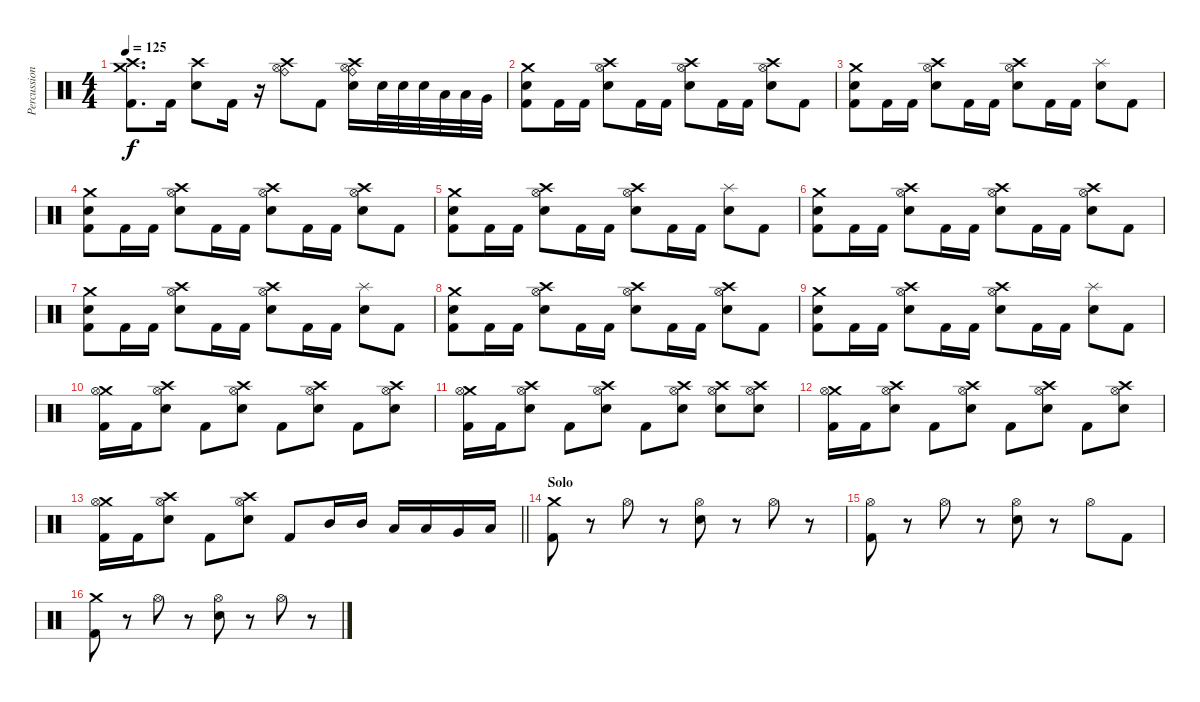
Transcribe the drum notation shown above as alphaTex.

\track ("Percussion" "Percussion") {instrument percussion}
\staff {score}
\articulation defaults
\ts (4 4)
\tempo 125
\clef neutral
\ks c
("Crash medium (hit)" "Crash high (hit)" "Kick (hit) 2").8{d dy f} "Kick (hit) 2".16 ("Crash high (hit)" "Electric Snare (hit)").8 "Kick (hit) 2".16 r.16 ("Ride (bell)" "Crash high (hit)" "Hi-Hat (open)").8 "Kick (hit) 2".8 ("Ride (bell)" "Crash high (hit)" "Hi-Hat (open)" "Electric Snare (hit)").16 "Electric Snare (hit)".32 "Electric Snare (hit)".32 "Electric Snare (hit)".32 "Low Tom (hit)".32 "Low Tom (hit)".32 "Very Low Tom (hit)".32 |
("Crash medium (hit)" "Kick (hit) 2" "Electric Snare (hit)").8 "Kick (hit) 2".16 "Kick (hit) 2".16 ("Hi-Hat (open)" "Crash high (hit)" "Electric Snare (hit)").8 "Kick (hit) 2".16 "Kick (hit) 2".16 ("Hi-Hat (open)" "Crash high (hit)" "Electric Snare (hit)").8 "Kick (hit) 2".16 "Kick (hit) 2".16 ("Hi-Hat (open)" "Crash high (hit)" "Electric Snare (hit)").8 "Kick (hit) 2".8 |
("Crash medium (hit)" "Kick (hit) 2" "Electric Snare (hit)").8 "Kick (hit) 2".16 "Kick (hit) 2".16 ("Hi-Hat (open)" "Crash high (hit)" "Electric Snare (hit)").8 "Kick (hit) 2".16 "Kick (hit) 2".16 ("Hi-Hat (open)" "Crash high (hit)" "Electric Snare (hit)").8 "Kick (hit) 2".16 "Kick (hit) 2".16 ("Splash (hit)" "Electric Snare (hit)").8 "Kick (hit) 2".8 |
("Crash medium (hit)" "Kick (hit) 2" "Electric Snare (hit)").8 "Kick (hit) 2".16 "Kick (hit) 2".16 ("Hi-Hat (open)" "Crash high (hit)" "Electric Snare (hit)").8 "Kick (hit) 2".16 "Kick (hit) 2".16 ("Hi-Hat (open)" "Crash high (hit)" "Electric Snare (hit)").8 "Kick (hit) 2".16 "Kick (hit) 2".16 ("Hi-Hat (open)" "Crash high (hit)" "Electric Snare (hit)").8 "Kick (hit) 2".8 |
("Crash medium (hit)" "Kick (hit) 2" "Electric Snare (hit)").8 "Kick (hit) 2".16 "Kick (hit) 2".16 ("Hi-Hat (open)" "Crash high (hit)" "Electric Snare (hit)").8 "Kick (hit) 2".16 "Kick (hit) 2".16 ("Hi-Hat (open)" "Crash high (hit)" "Electric Snare (hit)").8 "Kick (hit) 2".16 "Kick (hit) 2".16 ("Splash (hit)" "Electric Snare (hit)").8 "Kick (hit) 2".8 |
("Crash medium (hit)" "Kick (hit) 2" "Electric Snare (hit)").8 "Kick (hit) 2".16 "Kick (hit) 2".16 ("Hi-Hat (open)" "Crash high (hit)" "Electric Snare (hit)").8 "Kick (hit) 2".16 "Kick (hit) 2".16 ("Hi-Hat (open)" "Crash high (hit)" "Electric Snare (hit)").8 "Kick (hit) 2".16 "Kick (hit) 2".16 ("Hi-Hat (open)" "Crash high (hit)" "Electric Snare (hit)").8 "Kick (hit) 2".8 |
("Crash medium (hit)" "Kick (hit) 2" "Electric Snare (hit)").8 "Kick (hit) 2".16 "Kick (hit) 2".16 ("Hi-Hat (open)" "Crash high (hit)" "Electric Snare (hit)").8 "Kick (hit) 2".16 "Kick (hit) 2".16 ("Hi-Hat (open)" "Crash high (hit)" "Electric Snare (hit)").8 "Kick (hit) 2".16 "Kick (hit) 2".16 ("Splash (hit)" "Electric Snare (hit)").8 "Kick (hit) 2".8 |
("Crash medium (hit)" "Kick (hit) 2" "Electric Snare (hit)").8 "Kick (hit) 2".16 "Kick (hit) 2".16 ("Hi-Hat (open)" "Crash high (hit)" "Electric Snare (hit)").8 "Kick (hit) 2".16 "Kick (hit) 2".16 ("Hi-Hat (open)" "Crash high (hit)" "Electric Snare (hit)").8 "Kick (hit) 2".16 "Kick (hit) 2".16 ("Hi-Hat (open)" "Crash high (hit)" "Electric Snare (hit)").8 "Kick (hit) 2".8 |
("Crash medium (hit)" "Kick (hit) 2" "Electric Snare (hit)").8 "Kick (hit) 2".16 "Kick (hit) 2".16 ("Hi-Hat (open)" "Crash high (hit)" "Electric Snare (hit)").8 "Kick (hit) 2".16 "Kick (hit) 2".16 ("Hi-Hat (open)" "Crash high (hit)" "Electric Snare (hit)").8 "Kick (hit) 2".16 "Kick (hit) 2".16 ("Splash (hit)" "Electric Snare (hit)").8 "Kick (hit) 2".8 |
("Crash medium (hit)" "Hi-Hat (open)" "Kick (hit) 2").16 "Kick (hit) 2".16 ("Hi-Hat (open)" "Crash high (hit)" "Electric Snare (hit)").8 "Kick (hit) 2".8 ("Hi-Hat (open)" "Crash high (hit)" "Electric Snare (hit)").8 "Kick (hit) 2".8 ("Hi-Hat (open)" "Crash high (hit)" "Electric Snare (hit)").8 "Kick (hit) 2".8 ("Hi-Hat (open)" "Crash high (hit)" "Electric Snare (hit)").8 |
("Crash medium (hit)" "Hi-Hat (open)" "Kick (hit) 2").16 "Kick (hit) 2".16 ("Hi-Hat (open)" "Crash high (hit)" "Electric Snare (hit)").8 "Kick (hit) 2".8 ("Hi-Hat (open)" "Crash high (hit)" "Electric Snare (hit)").8 "Kick (hit) 2".8 ("Hi-Hat (open)" "Crash high (hit)" "Electric Snare (hit)").8 ("Hi-Hat (open)" "Crash high (hit)" "Electric Snare (hit)").8 ("Hi-Hat (open)" "Crash high (hit)" "Electric Snare (hit)").8 |
("Crash medium (hit)" "Hi-Hat (open)" "Kick (hit) 2").16 "Kick (hit) 2".16 ("Hi-Hat (open)" "Crash high (hit)" "Electric Snare (hit)").8 "Kick (hit) 2".8 ("Hi-Hat (open)" "Crash high (hit)" "Electric Snare (hit)").8 "Kick (hit) 2".8 ("Hi-Hat (open)" "Crash high (hit)" "Electric Snare (hit)").8 "Kick (hit) 2".8 ("Hi-Hat (open)" "Crash high (hit)" "Electric Snare (hit)").8 |
\barLineRight lightlight
("Crash medium (hit)" "Hi-Hat (open)" "Kick (hit) 2").16 "Kick (hit) 2".16 ("Hi-Hat (open)" "Crash high (hit)" "Electric Snare (hit)").8 "Kick (hit) 2".8 ("Hi-Hat (open)" "Crash high (hit)" "Electric Snare (hit)").8 "Kick (hit) 2".8 "Mid Tom (hit)".16 "Mid Tom (hit)".16 "Low Tom (hit)".16 "Low Tom (hit)".16 "Very Low Tom (hit)".16 "Low Tom (hit)".16 |
\section ("" "Solo ")
("Crash medium (hit)" "Kick (hit) 2").8 r.8 "Hi-Hat (open)".8 r.8 ("Hi-Hat (open)" "Electric Snare (hit)").8 r.8 "Hi-Hat (open)".8 r.8 |
("Hi-Hat (open)" "Kick (hit) 2").8 r.8 "Hi-Hat (open)".8 r.8 ("Hi-Hat (open)" "Electric Snare (hit)").8 r.8 "Hi-Hat (open)".8 "Kick (hit) 2".8 |
("Crash medium (hit)" "Kick (hit) 2").8 r.8 "Hi-Hat (open)".8 r.8 ("Hi-Hat (open)" "Electric Snare (hit)").8 r.8 "Hi-Hat (open)".8 r.8
